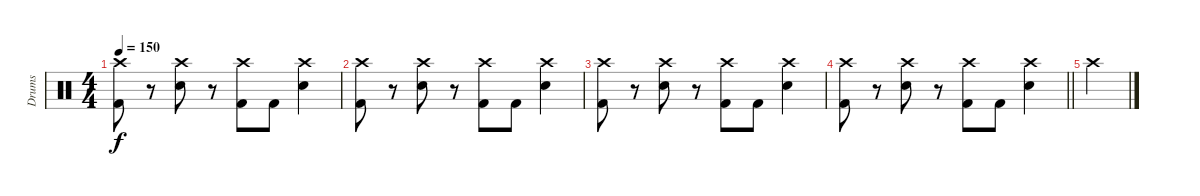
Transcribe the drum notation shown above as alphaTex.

\track ("Drums" "Drums") {instrument percussion}
\staff {score}
\articulation defaults
\ts (4 4)
\tempo 150
\clef neutral
\ks c
("Crash high (hit)" "Kick (hit) 2").8{dy f} r.8 ("Crash high (hit)" "Snare (hit) 2").8 r.8 ("Crash high (hit)" "Kick (hit) 2").8 "Kick (hit) 2".8 ("Crash high (hit)" "Snare (hit) 2").4 |
("Crash high (hit)" "Kick (hit) 2").8 r.8 ("Crash high (hit)" "Snare (hit) 2").8 r.8 ("Crash high (hit)" "Kick (hit) 2").8 "Kick (hit) 2".8 ("Crash high (hit)" "Snare (hit) 2").4 |
("Crash high (hit)" "Kick (hit) 2").8 r.8 ("Crash high (hit)" "Snare (hit) 2").8 r.8 ("Crash high (hit)" "Kick (hit) 2").8 "Kick (hit) 2".8 ("Crash high (hit)" "Snare (hit) 2").4 |
\barLineRight lightlight
("Crash high (hit)" "Kick (hit) 2").8 r.8 ("Crash high (hit)" "Snare (hit) 2").8 r.8 ("Crash high (hit)" "Kick (hit) 2").8 "Kick (hit) 2".8 ("Crash high (hit)" "Snare (hit) 2").4 |
"Crash high (hit)".4
